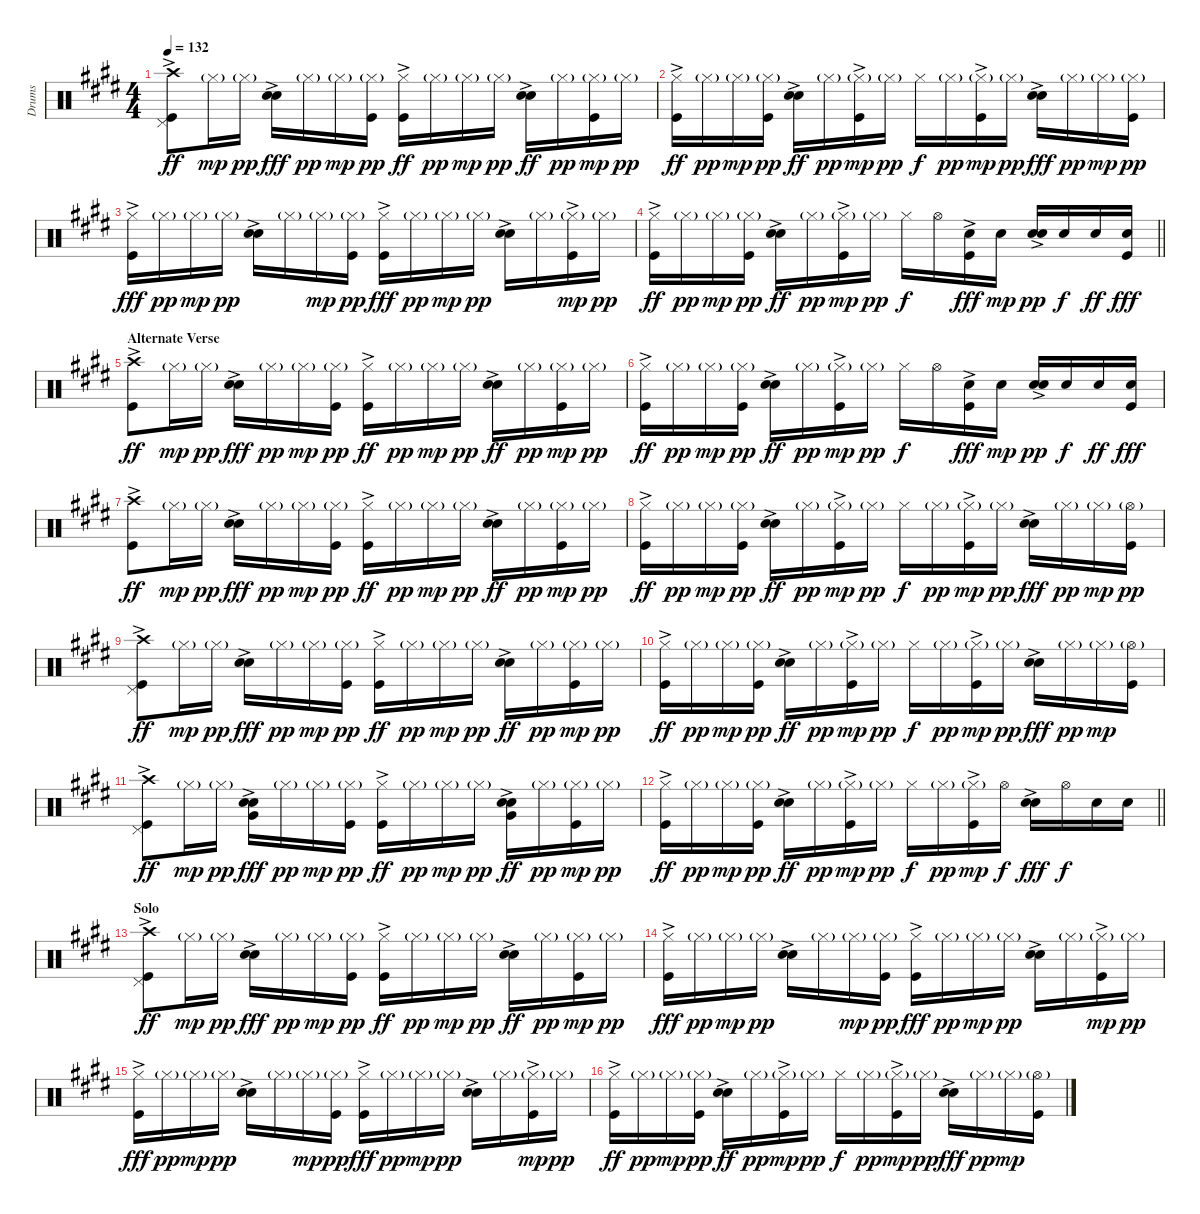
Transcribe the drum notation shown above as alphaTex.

\track ("Drums" "Drums") {instrument percussion}
\staff {score}
\articulation defaults
\ts (4 4)
\tempo 132
\clef neutral
\ks e
("Kick (hit)"{ac} "Crash high (hit)" "Pedal Hi-Hat (hit)").8{dy ff} "Hi-Hat (closed)"{g}.16{dy mp} "Hi-Hat (closed)"{g}.16{dy pp} ("Snare (hit) 2"{ac} "Electric Snare (hit)").16{dy fff} "Hi-Hat (closed)"{g}.16{dy pp} "Hi-Hat (closed)"{g}.16{dy mp} ("Kick (hit)" "Hi-Hat (closed)"{g}).16{dy pp} ("Kick (hit)"{ac} "Hi-Hat (closed)").16{dy ff} "Hi-Hat (closed)"{g}.16{dy pp} "Hi-Hat (closed)"{g}.16{dy mp} "Hi-Hat (closed)"{g}.16{dy pp} ("Snare (hit) 2"{ac} "Electric Snare (hit)").16{dy ff} "Hi-Hat (closed)"{g}.16{dy pp} ("Kick (hit)" "Hi-Hat (closed)"{g}).16{dy mp} "Hi-Hat (closed)"{g}.16{dy pp} |
("Kick (hit)"{ac} "Hi-Hat (closed)").16{dy ff} "Hi-Hat (closed)"{g}.16{dy pp} "Hi-Hat (closed)"{g}.16{dy mp} ("Kick (hit)" "Hi-Hat (closed)"{g}).16{dy pp} ("Snare (hit) 2"{ac} "Electric Snare (hit)").16{dy ff} "Hi-Hat (closed)"{g}.16{dy pp} ("Kick (hit)"{ac} "Hi-Hat (closed)"{g}).16{dy mp} "Hi-Hat (closed)"{g}.16{dy pp} "Hi-Hat (closed)".16{dy f} "Hi-Hat (closed)"{g}.16{dy pp} ("Kick (hit)"{ac} "Hi-Hat (closed)"{g}).16{dy mp} "Hi-Hat (closed)"{g}.16{dy pp} ("Snare (hit) 2"{ac} "Electric Snare (hit)").16{dy fff} "Hi-Hat (closed)"{g}.16{dy pp} "Hi-Hat (closed)"{g}.16{dy mp} ("Kick (hit)" "Hi-Hat (closed)"{g}).16{dy pp} |
("Kick (hit)"{ac} "Hi-Hat (closed)").16{dy fff} "Hi-Hat (closed)"{g}.16{dy pp} "Hi-Hat (closed)"{g}.16{dy mp} "Hi-Hat (closed)"{g}.16{dy pp} ("Snare (hit) 2"{ac} "Electric Snare (hit)").16 "Hi-Hat (closed)"{g}.16 "Hi-Hat (closed)"{g}.16{dy mp} ("Kick (hit)" "Hi-Hat (closed)"{g}).16{dy pp} ("Kick (hit)"{ac} "Hi-Hat (closed)").16{dy fff} "Hi-Hat (closed)"{g}.16{dy pp} "Hi-Hat (closed)"{g}.16{dy mp} "Hi-Hat (closed)"{g}.16{dy pp} ("Snare (hit) 2"{ac} "Electric Snare (hit)").16 "Hi-Hat (closed)"{g}.16 ("Kick (hit)"{ac} "Hi-Hat (closed)"{g}).16{dy mp} "Hi-Hat (closed)"{g}.16{dy pp} |
\barLineRight lightlight
("Kick (hit)"{ac} "Hi-Hat (closed)").16{dy ff} "Hi-Hat (closed)"{g}.16{dy pp} "Hi-Hat (closed)"{g}.16{dy mp} ("Kick (hit)" "Hi-Hat (closed)"{g}).16{dy pp} ("Snare (hit) 2"{ac} "Electric Snare (hit)").16{dy ff} "Hi-Hat (closed)"{g}.16{dy pp} ("Kick (hit)"{ac} "Hi-Hat (closed)"{g}).16{dy mp} "Hi-Hat (closed)"{g}.16{dy pp} "Hi-Hat (closed)".16{dy f} "Hi-Hat (open)".16 ("Kick (hit)"{ac} "Snare (hit) 2").16{dy fff} "Snare (hit) 2".16{dy mp} ("Snare (hit) 2"{ac} "Electric Snare (hit)").16{dy pp} "Snare (hit) 2".16{dy f} "Snare (hit) 2".16{dy ff} ("Kick (hit)" "Snare (hit) 2").16{dy fff} |
\section ("" "Alternate Verse")
("Kick (hit)"{ac} "Crash high (hit)").8{dy ff} "Hi-Hat (closed)"{g}.16{dy mp} "Hi-Hat (closed)"{g}.16{dy pp} ("Snare (hit) 2"{ac} "Electric Snare (hit)").16{dy fff} "Hi-Hat (closed)"{g}.16{dy pp} "Hi-Hat (closed)"{g}.16{dy mp} ("Kick (hit)" "Hi-Hat (closed)"{g}).16{dy pp} ("Kick (hit)"{ac} "Hi-Hat (closed)").16{dy ff} "Hi-Hat (closed)"{g}.16{dy pp} "Hi-Hat (closed)"{g}.16{dy mp} "Hi-Hat (closed)"{g}.16{dy pp} ("Snare (hit) 2"{ac} "Electric Snare (hit)").16{dy ff} "Hi-Hat (closed)"{g}.16{dy pp} ("Kick (hit)" "Hi-Hat (closed)"{g}).16{dy mp} "Hi-Hat (closed)"{g}.16{dy pp} |
("Kick (hit)"{ac} "Hi-Hat (closed)").16{dy ff} "Hi-Hat (closed)"{g}.16{dy pp} "Hi-Hat (closed)"{g}.16{dy mp} ("Kick (hit)" "Hi-Hat (closed)"{g}).16{dy pp} ("Snare (hit) 2"{ac} "Electric Snare (hit)").16{dy ff} "Hi-Hat (closed)"{g}.16{dy pp} ("Kick (hit)"{ac} "Hi-Hat (closed)"{g}).16{dy mp} "Hi-Hat (closed)"{g}.16{dy pp} "Hi-Hat (closed)".16{dy f} "Hi-Hat (open)".16 ("Kick (hit)"{ac} "Snare (hit) 2").16{dy fff} "Snare (hit) 2".16{dy mp} ("Snare (hit) 2"{ac} "Electric Snare (hit)").16{dy pp} "Snare (hit) 2".16{dy f} "Snare (hit) 2".16{dy ff} ("Kick (hit)" "Snare (hit) 2").16{dy fff} |
("Kick (hit)"{ac} "Crash high (hit)").8{dy ff} "Hi-Hat (closed)"{g}.16{dy mp} "Hi-Hat (closed)"{g}.16{dy pp} ("Snare (hit) 2"{ac} "Electric Snare (hit)").16{dy fff} "Hi-Hat (closed)"{g}.16{dy pp} "Hi-Hat (closed)"{g}.16{dy mp} ("Kick (hit)" "Hi-Hat (closed)"{g}).16{dy pp} ("Kick (hit)"{ac} "Hi-Hat (closed)").16{dy ff} "Hi-Hat (closed)"{g}.16{dy pp} "Hi-Hat (closed)"{g}.16{dy mp} "Hi-Hat (closed)"{g}.16{dy pp} ("Snare (hit) 2"{ac} "Electric Snare (hit)").16{dy ff} "Hi-Hat (closed)"{g}.16{dy pp} ("Kick (hit)" "Hi-Hat (closed)"{g}).16{dy mp} "Hi-Hat (closed)"{g}.16{dy pp} |
("Kick (hit)"{ac} "Hi-Hat (closed)").16{dy ff} "Hi-Hat (closed)"{g}.16{dy pp} "Hi-Hat (closed)"{g}.16{dy mp} ("Kick (hit)" "Hi-Hat (closed)"{g}).16{dy pp} ("Snare (hit) 2"{ac} "Electric Snare (hit)").16{dy ff} "Hi-Hat (closed)"{g}.16{dy pp} ("Kick (hit)"{ac} "Hi-Hat (closed)"{g}).16{dy mp} "Hi-Hat (closed)"{g}.16{dy pp} "Hi-Hat (closed)".16{dy f} "Hi-Hat (closed)"{g}.16{dy pp} ("Kick (hit)"{ac} "Hi-Hat (closed)"{g}).16{dy mp} "Hi-Hat (closed)"{g}.16{dy pp} ("Snare (hit) 2"{ac} "Electric Snare (hit)").16{dy fff} "Hi-Hat (closed)"{g}.16{dy pp} "Hi-Hat (closed)"{g}.16{dy mp} ("Kick (hit)" "Hi-Hat (open)"{g}).16{dy pp} |
("Kick (hit)"{ac} "Crash high (hit)" "Pedal Hi-Hat (hit)").8{dy ff} "Hi-Hat (closed)"{g}.16{dy mp} "Hi-Hat (closed)"{g}.16{dy pp} ("Snare (hit) 2"{ac} "Electric Snare (hit)").16{dy fff} "Hi-Hat (closed)"{g}.16{dy pp} "Hi-Hat (closed)"{g}.16{dy mp} ("Kick (hit)" "Hi-Hat (closed)"{g}).16{dy pp} ("Kick (hit)"{ac} "Hi-Hat (closed)").16{dy ff} "Hi-Hat (closed)"{g}.16{dy pp} "Hi-Hat (closed)"{g}.16{dy mp} "Hi-Hat (closed)"{g}.16{dy pp} ("Snare (hit) 2"{ac} "Electric Snare (hit)").16{dy ff} "Hi-Hat (closed)"{g}.16{dy pp} ("Kick (hit)" "Hi-Hat (closed)"{g}).16{dy mp} "Hi-Hat (closed)"{g}.16{dy pp} |
("Kick (hit)"{ac} "Hi-Hat (closed)").16{dy ff} "Hi-Hat (closed)"{g}.16{dy pp} "Hi-Hat (closed)"{g}.16{dy mp} ("Kick (hit)" "Hi-Hat (closed)"{g}).16{dy pp} ("Snare (hit) 2"{ac} "Electric Snare (hit)").16{dy ff} "Hi-Hat (closed)"{g}.16{dy pp} ("Kick (hit)"{ac} "Hi-Hat (closed)"{g}).16{dy mp} "Hi-Hat (closed)"{g}.16{dy pp} "Hi-Hat (closed)".16{dy f} "Hi-Hat (closed)"{g}.16{dy pp} ("Kick (hit)"{ac} "Hi-Hat (closed)"{g}).16{dy mp} "Hi-Hat (closed)"{g}.16{dy pp} ("Snare (hit) 2"{ac} "Electric Snare (hit)").16{dy fff} "Hi-Hat (closed)"{g}.16{dy pp} "Hi-Hat (closed)"{g}.16{dy mp} ("Kick (hit)" "Hi-Hat (open)"{g}).16 |
("Kick (hit)"{ac} "Crash high (hit)" "Pedal Hi-Hat (hit)").8{dy ff} "Hi-Hat (closed)"{g}.16{dy mp} "Hi-Hat (closed)"{g}.16{dy pp} ("Snare (hit) 2"{ac} "Electric Snare (hit)" "Very Low Tom (hit)").16{dy fff} "Hi-Hat (closed)"{g}.16{dy pp} "Hi-Hat (closed)"{g}.16{dy mp} ("Kick (hit)" "Hi-Hat (closed)"{g}).16{dy pp} ("Kick (hit)"{ac} "Hi-Hat (closed)").16{dy ff} "Hi-Hat (closed)"{g}.16{dy pp} "Hi-Hat (closed)"{g}.16{dy mp} "Hi-Hat (closed)"{g}.16{dy pp} ("Snare (hit) 2"{ac} "Electric Snare (hit)" "Very Low Tom (hit)").16{dy ff} "Hi-Hat (closed)"{g}.16{dy pp} ("Kick (hit)" "Hi-Hat (closed)"{g}).16{dy mp} "Hi-Hat (closed)"{g}.16{dy pp} |
\barLineRight lightlight
("Kick (hit)"{ac} "Hi-Hat (closed)").16{dy ff} "Hi-Hat (closed)"{g}.16{dy pp} "Hi-Hat (closed)"{g}.16{dy mp} ("Kick (hit)" "Hi-Hat (closed)"{g}).16{dy pp} ("Snare (hit) 2"{ac} "Electric Snare (hit)").16{dy ff} "Hi-Hat (closed)"{g}.16{dy pp} ("Kick (hit)"{ac} "Hi-Hat (closed)"{g}).16{dy mp} "Hi-Hat (closed)"{g}.16{dy pp} "Hi-Hat (closed)".16{dy f} "Hi-Hat (closed)"{g}.16{dy pp} ("Kick (hit)"{ac} "Hi-Hat (closed)"{g}).16{dy mp} "Hi-Hat (open)".16{dy f} ("Snare (hit) 2"{ac} "Electric Snare (hit)").16{dy fff} "Hi-Hat (open)".16{dy f} "Snare (hit) 2".16 "Snare (hit) 2".16 |
\section ("" "Solo")
("Kick (hit)"{ac} "Crash high (hit)" "Pedal Hi-Hat (hit)").8{dy ff} "Hi-Hat (closed)"{g}.16{dy mp} "Hi-Hat (closed)"{g}.16{dy pp} ("Snare (hit) 2"{ac} "Electric Snare (hit)").16{dy fff} "Hi-Hat (closed)"{g}.16{dy pp} "Hi-Hat (closed)"{g}.16{dy mp} ("Kick (hit)" "Hi-Hat (closed)"{g}).16{dy pp} ("Kick (hit)"{ac} "Hi-Hat (closed)").16{dy ff} "Hi-Hat (closed)"{g}.16{dy pp} "Hi-Hat (closed)"{g}.16{dy mp} "Hi-Hat (closed)"{g}.16{dy pp} ("Snare (hit) 2"{ac} "Electric Snare (hit)").16{dy ff} "Hi-Hat (closed)"{g}.16{dy pp} ("Kick (hit)" "Hi-Hat (closed)"{g}).16{dy mp} "Hi-Hat (closed)"{g}.16{dy pp} |
("Kick (hit)"{ac} "Hi-Hat (closed)").16{dy fff} "Hi-Hat (closed)"{g}.16{dy pp} "Hi-Hat (closed)"{g}.16{dy mp} "Hi-Hat (closed)"{g}.16{dy pp} ("Snare (hit) 2"{ac} "Electric Snare (hit)").16 "Hi-Hat (closed)"{g}.16 "Hi-Hat (closed)"{g}.16{dy mp} ("Kick (hit)" "Hi-Hat (closed)"{g}).16{dy pp} ("Kick (hit)"{ac} "Hi-Hat (closed)").16{dy fff} "Hi-Hat (closed)"{g}.16{dy pp} "Hi-Hat (closed)"{g}.16{dy mp} "Hi-Hat (closed)"{g}.16{dy pp} ("Snare (hit) 2"{ac} "Electric Snare (hit)").16 "Hi-Hat (closed)"{g}.16 ("Kick (hit)"{ac} "Hi-Hat (closed)"{g}).16{dy mp} "Hi-Hat (closed)"{g}.16{dy pp} |
("Kick (hit)"{ac} "Hi-Hat (closed)").16{dy fff} "Hi-Hat (closed)"{g}.16{dy pp} "Hi-Hat (closed)"{g}.16{dy mp} "Hi-Hat (closed)"{g}.16{dy pp} ("Snare (hit) 2"{ac} "Electric Snare (hit)").16 "Hi-Hat (closed)"{g}.16 "Hi-Hat (closed)"{g}.16{dy mp} ("Kick (hit)" "Hi-Hat (closed)"{g}).16{dy pp} ("Kick (hit)"{ac} "Hi-Hat (closed)").16{dy fff} "Hi-Hat (closed)"{g}.16{dy pp} "Hi-Hat (closed)"{g}.16{dy mp} "Hi-Hat (closed)"{g}.16{dy pp} ("Snare (hit) 2"{ac} "Electric Snare (hit)").16 "Hi-Hat (closed)"{g}.16 ("Kick (hit)"{ac} "Hi-Hat (closed)"{g}).16{dy mp} "Hi-Hat (closed)"{g}.16{dy pp} |
("Kick (hit)"{ac} "Hi-Hat (closed)").16{dy ff} "Hi-Hat (closed)"{g}.16{dy pp} "Hi-Hat (closed)"{g}.16{dy mp} ("Kick (hit)" "Hi-Hat (closed)"{g}).16{dy pp} ("Snare (hit) 2"{ac} "Electric Snare (hit)").16{dy ff} "Hi-Hat (closed)"{g}.16{dy pp} ("Kick (hit)"{ac} "Hi-Hat (closed)"{g}).16{dy mp} "Hi-Hat (closed)"{g}.16{dy pp} "Hi-Hat (closed)".16{dy f} "Hi-Hat (closed)"{g}.16{dy pp} ("Kick (hit)"{ac} "Hi-Hat (closed)"{g}).16{dy mp} "Hi-Hat (closed)"{g}.16{dy pp} ("Snare (hit) 2"{ac} "Electric Snare (hit)").16{dy fff} "Hi-Hat (closed)"{g}.16{dy pp} "Hi-Hat (closed)"{g}.16{dy mp} ("Kick (hit)" "Hi-Hat (open)"{g}).16
